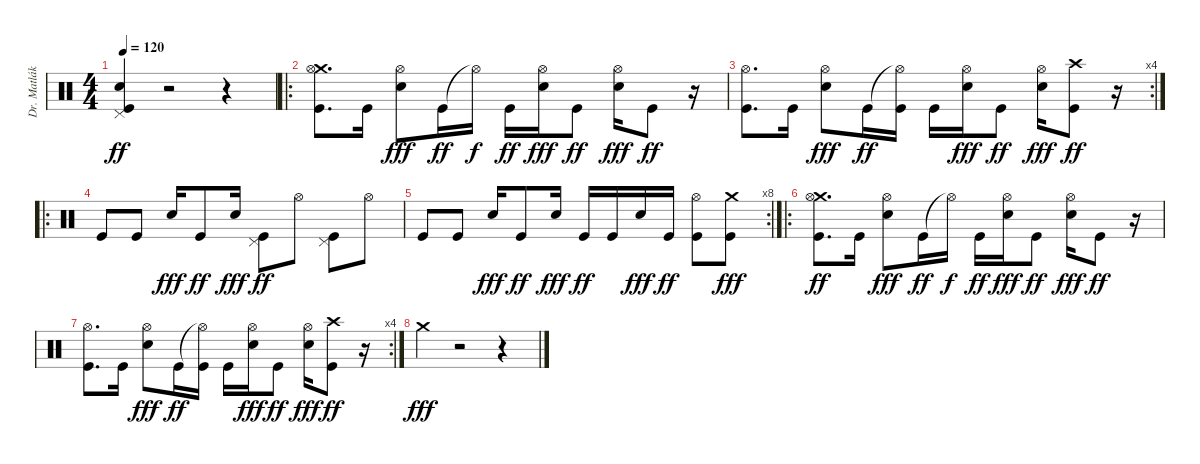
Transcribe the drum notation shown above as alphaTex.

\track ("Dr. Matlák" "Dr. Matlák") {instrument percussion}
\staff {score}
\articulation defaults
\ts (4 4)
\tempo 120
\clef neutral
\ks c
("Pedal Hi-Hat (hit)" "Electric Snare (hit)" "Kick (hit)").4{dy ff} r.2 r.4 |
\ro
("Crash medium (hit)" "Hi-Hat (open)" "Kick (hit)").8{d} "Kick (hit)".16 ("Hi-Hat (open)" "Electric Snare (hit)").8{dy fff} "Kick (hit)".16{dy ff} "Hi-Hat (open)"{t}.16{dy f} "Kick (hit)".16{dy ff} ("Hi-Hat (open)" "Electric Snare (hit)").16{dy fff} "Kick (hit)".8{dy ff} ("Hi-Hat (open)" "Electric Snare (hit)").16{dy fff} "Kick (hit)".8{dy ff} r.16 |
\rc 4
("Hi-Hat (open)" "Kick (hit)").8{d} "Kick (hit)".16 ("Hi-Hat (open)" "Electric Snare (hit)").8{dy fff} "Kick (hit)".16{dy ff} ("Hi-Hat (open)"{t} "Kick (hit)").16 "Kick (hit)".16 ("Hi-Hat (open)" "Electric Snare (hit)").16{dy fff} "Kick (hit)".8{dy ff} ("Hi-Hat (open)" "Electric Snare (hit)").16{dy fff} ("Crash high (hit)" "Kick (hit)").8{dy ff} r.16 |
\ro "Kick (hit)".8 "Kick (hit)".8 "Electric Snare (hit)".16{dy fff} "Kick (hit)".8{dy ff} "Electric Snare (hit)".16{dy fff}
("Pedal Hi-Hat (hit)" "Kick (hit)").8{dy ff} "Hi-Hat (open)".8 ("Pedal Hi-Hat (hit)" "Kick (hit)").8 "Hi-Hat (open)".8 |
\rc 8 "Kick (hit)".8 "Kick (hit)".8 "Electric Snare (hit)".16{dy fff} "Kick (hit)".8{dy ff} "Electric Snare (hit)".16{dy fff} "Kick (hit)".16{dy ff} "Kick (hit)".16 "Electric Snare (hit)".16{dy fff} "Kick (hit)".16{dy ff}
("Hi-Hat (open)" "Kick (hit)").8 ("Crash medium (hit)" "Kick (hit)").8{dy fff} |
\ro
("Crash medium (hit)" "Hi-Hat (open)" "Kick (hit)").8{d dy ff} "Kick (hit)".16 ("Hi-Hat (open)" "Electric Snare (hit)").8{dy fff} "Kick (hit)".16{dy ff} "Hi-Hat (open)"{t}.16{dy f} "Kick (hit)".16{dy ff} ("Hi-Hat (open)" "Electric Snare (hit)").16{dy fff} "Kick (hit)".8{dy ff} ("Hi-Hat (open)" "Electric Snare (hit)").16{dy fff} "Kick (hit)".8{dy ff} r.16 |
\rc 4
("Hi-Hat (open)" "Kick (hit)").8{d} "Kick (hit)".16 ("Hi-Hat (open)" "Electric Snare (hit)").8{dy fff} "Kick (hit)".16{dy ff} ("Hi-Hat (open)"{t} "Kick (hit)").16 "Kick (hit)".16 ("Hi-Hat (open)" "Electric Snare (hit)").16{dy fff} "Kick (hit)".8{dy ff} ("Hi-Hat (open)" "Electric Snare (hit)").16{dy fff} ("Crash high (hit)" "Kick (hit)").8{dy ff} r.16 |
"Crash medium (hit)".4{dy fff} r.2 r.4
